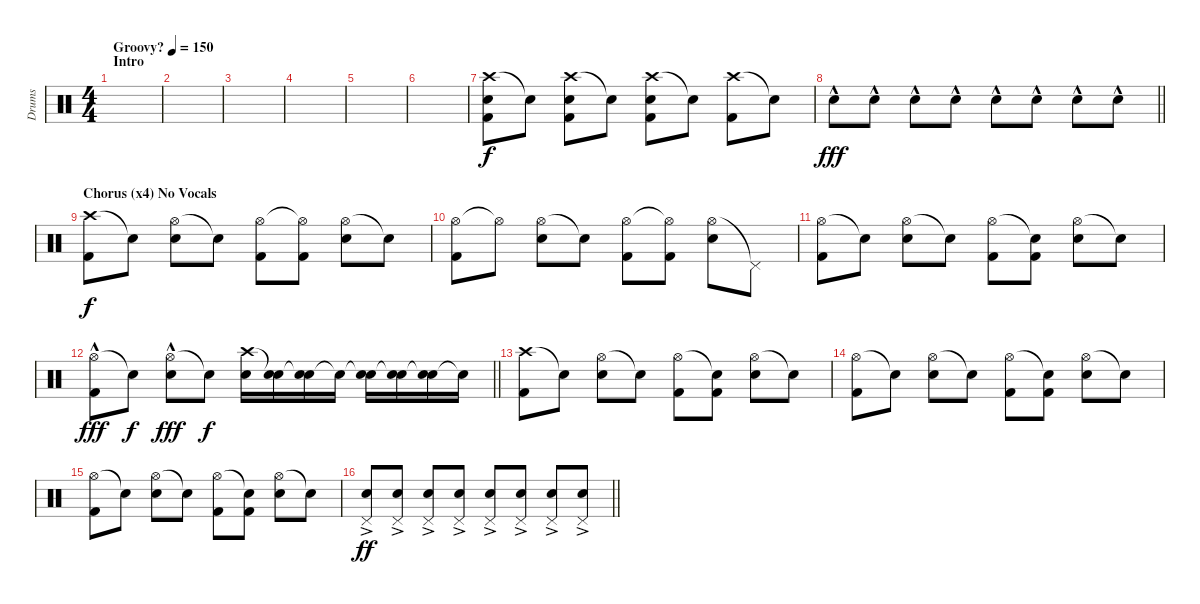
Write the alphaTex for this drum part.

\track ("Drums" "Drums") {instrument percussion}
\staff {score}
\articulation defaults
\ts (4 4)
\section ("" "Intro")
\tempo (150 "Groovy?")
\clef neutral
\ks c
|
|
|
|
|
|
("Crash high (hit)" "Electric Snare (hit)" "Kick (hit) 2").8 "Snare (hit)"{t}.8 ("Crash high (hit)" "Electric Snare (hit)" "Kick (hit) 2").8 "Snare (hit)"{t}.8 ("Crash high (hit)" "Electric Snare (hit)" "Kick (hit) 2").8 "Snare (hit)"{t}.8 ("Crash high (hit)" "Kick (hit) 2").8 "Snare (hit)"{t}.8 |
\barLineRight lightlight "Electric Snare (hit)"{hac}.8{dy fff} "Electric Snare (hit)"{hac}.8 "Electric Snare (hit)"{hac}.8 "Electric Snare (hit)"{hac}.8 "Electric Snare (hit)"{hac}.8 "Electric Snare (hit)"{hac}.8 "Electric Snare (hit)"{hac}.8 "Electric Snare (hit)"{hac}.8
|
\section ("" "Chorus (x4) No Vocals")
("Crash high (hit)" "Kick (hit) 2").8{dy f} "Snare (hit)"{t}.8 ("Hi-Hat (open)" "Electric Snare (hit)").8 "Snare (hit)"{t}.8 ("Hi-Hat (open)" "Kick (hit) 2").8 ("Hi-Hat (open)"{t} "Kick (hit) 2").8 ("Hi-Hat (open)" "Electric Snare (hit)").8 "Snare (hit)"{t}.8 |
("Hi-Hat (open)" "Kick (hit) 2").8 "Hi-Hat (open)"{t}.8 ("Hi-Hat (open)" "Electric Snare (hit)").8 "Snare (hit)"{t}.8 ("Hi-Hat (open)" "Kick (hit) 2").8 ("Hi-Hat (open)"{t} "Kick (hit) 2").8 ("Hi-Hat (open)" "Electric Snare (hit)").8 "Pedal Hi-Hat (hit)"{t}.8 |
("Hi-Hat (open)" "Kick (hit) 2").8 "Snare (hit)"{t}.8 ("Hi-Hat (open)" "Electric Snare (hit)").8 "Snare (hit)"{t}.8 ("Hi-Hat (open)" "Kick (hit) 2").8 ("Snare (hit)"{t} "Kick (hit) 2").8 ("Hi-Hat (open)" "Electric Snare (hit)").8 "Snare (hit)"{t}.8 |
\barLineRight lightlight
("Hi-Hat (open)"{hac} "Kick (hit) 2").8{dy fff} "Snare (hit)"{t}.8{dy f} ("Hi-Hat (open)"{hac} "Electric Snare (hit)").8{dy fff} "Snare (hit)"{t}.8{dy f} ("Crash high (hit)" "Electric Snare (hit)").16 ("Snare (hit)"{t} "Electric Snare (hit)").16 ("Snare (hit)"{t} "Electric Snare (hit)").16 "Snare (hit)"{t}.16 ("Snare (hit)"{t} "Electric Snare (hit)").16 ("Snare (hit)"{t} "Electric Snare (hit)").16 ("Snare (hit)"{t} "Electric Snare (hit)").16 "Snare (hit)"{t}.16 |
("Crash high (hit)" "Kick (hit) 2").8 "Snare (hit)"{t}.8 ("Hi-Hat (open)" "Electric Snare (hit)").8 "Snare (hit)"{t}.8 ("Hi-Hat (open)" "Kick (hit) 2").8 ("Snare (hit)"{t} "Kick (hit) 2").8 ("Hi-Hat (open)" "Electric Snare (hit)").8 "Snare (hit)"{t}.8 |
("Hi-Hat (open)" "Kick (hit) 2").8 "Snare (hit)"{t}.8 ("Hi-Hat (open)" "Electric Snare (hit)").8 "Snare (hit)"{t}.8 ("Hi-Hat (open)" "Kick (hit) 2").8 ("Snare (hit)"{t} "Kick (hit) 2").8 ("Hi-Hat (open)" "Electric Snare (hit)").8 "Snare (hit)"{t}.8 |
("Hi-Hat (open)" "Kick (hit) 2").8 "Snare (hit)"{t}.8 ("Hi-Hat (open)" "Electric Snare (hit)").8 "Snare (hit)"{t}.8 ("Hi-Hat (open)" "Kick (hit) 2").8 ("Snare (hit)"{t} "Kick (hit) 2").8 ("Hi-Hat (open)" "Electric Snare (hit)").8 "Snare (hit)"{t}.8 |
\barLineRight lightlight
("Pedal Hi-Hat (hit)" "Electric Snare (hit)"{ac}).8{dy ff} ("Pedal Hi-Hat (hit)" "Electric Snare (hit)"{ac}).8 ("Pedal Hi-Hat (hit)" "Electric Snare (hit)"{ac}).8 ("Pedal Hi-Hat (hit)" "Electric Snare (hit)"{ac}).8 ("Pedal Hi-Hat (hit)" "Electric Snare (hit)"{ac}).8 ("Pedal Hi-Hat (hit)" "Electric Snare (hit)"{ac}).8 ("Pedal Hi-Hat (hit)" "Electric Snare (hit)"{ac}).8 ("Pedal Hi-Hat (hit)" "Electric Snare (hit)"{ac}).8
